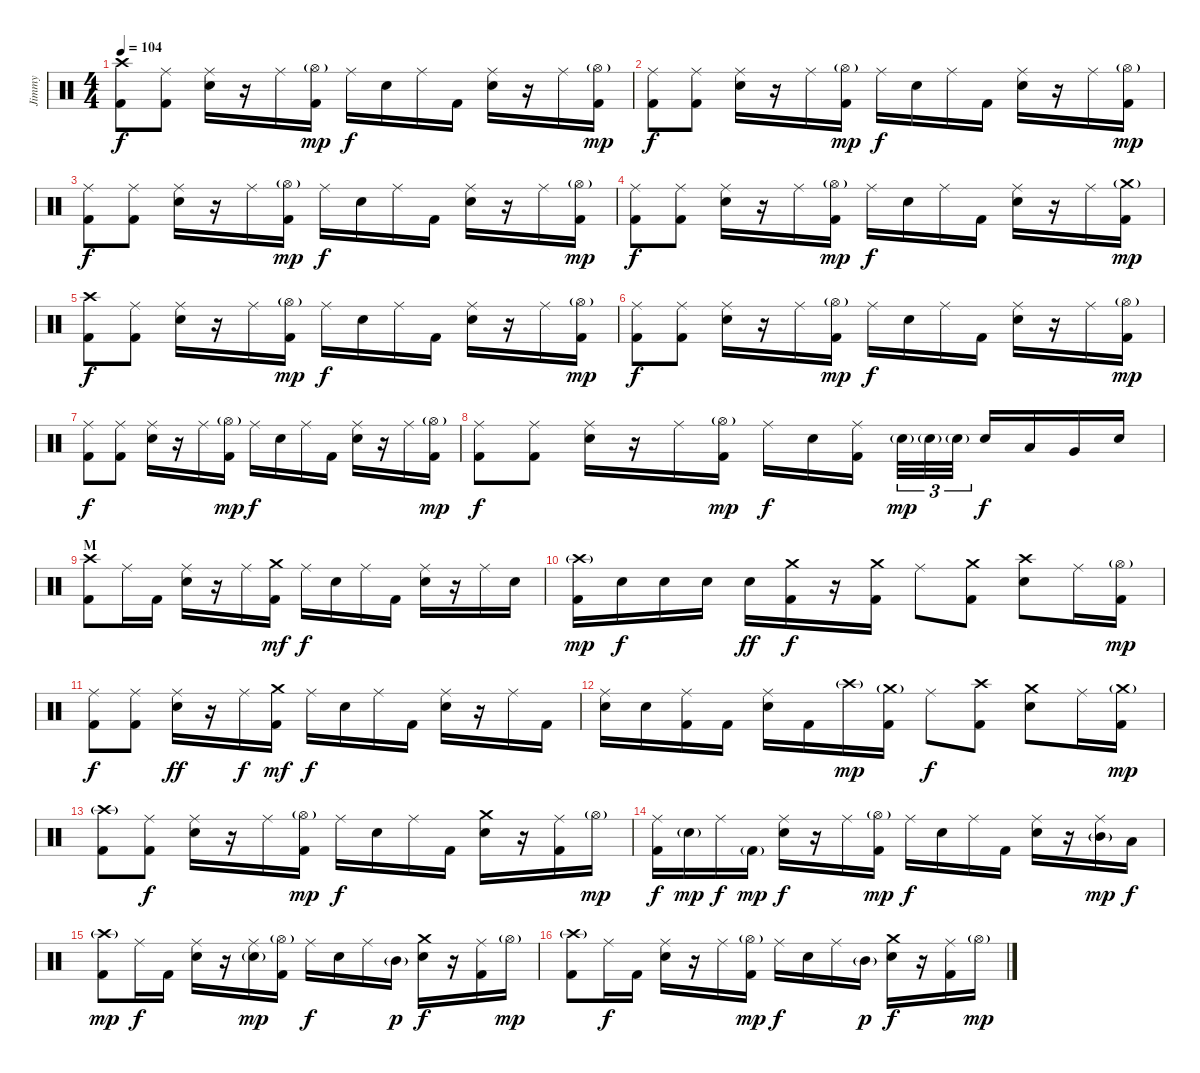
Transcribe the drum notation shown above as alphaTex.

\track ("Jimmy" "Jimmy") {instrument percussion}
\staff {score}
\articulation defaults
\ts (4 4)
\tempo 104
\clef neutral
\ks c
("Crash high (hit)" "Kick (hit) 2").8{dy f} ("Ride (middle)" "Kick (hit) 2").8 ("Ride (middle)" "Electric Snare (hit)").16 r.16 "Ride (middle)".16 ("Hi-Hat (open)"{g} "Kick (hit) 2").16{dy mp} "Ride (middle)".16{dy f} "Electric Snare (hit)".16 "Ride (middle)".16 "Kick (hit) 2".16 ("Ride (middle)" "Electric Snare (hit)").16 r.16 "Ride (middle)".16 ("Hi-Hat (open)"{g} "Kick (hit) 2").16{dy mp} |
("Ride (middle)" "Kick (hit) 2").8{dy f} ("Ride (middle)" "Kick (hit) 2").8 ("Ride (middle)" "Electric Snare (hit)").16 r.16 "Ride (middle)".16 ("Hi-Hat (open)"{g} "Kick (hit) 2").16{dy mp} "Ride (middle)".16{dy f} "Electric Snare (hit)".16 "Ride (middle)".16 "Kick (hit) 2".16 ("Ride (middle)" "Electric Snare (hit)").16 r.16 "Ride (middle)".16 ("Hi-Hat (open)"{g} "Kick (hit) 2").16{dy mp} |
("Ride (middle)" "Kick (hit) 2").8{dy f} ("Ride (middle)" "Kick (hit) 2").8 ("Ride (middle)" "Electric Snare (hit)").16 r.16 "Ride (middle)".16 ("Hi-Hat (open)"{g} "Kick (hit) 2").16{dy mp} "Ride (middle)".16{dy f} "Electric Snare (hit)".16 "Ride (middle)".16 "Kick (hit) 2".16 ("Ride (middle)" "Electric Snare (hit)").16 r.16 "Ride (middle)".16 ("Hi-Hat (open)"{g} "Kick (hit) 2").16{dy mp} |
("Ride (middle)" "Kick (hit) 2").8{dy f} ("Ride (middle)" "Kick (hit) 2").8 ("Ride (middle)" "Electric Snare (hit)").16 r.16 "Ride (middle)".16 ("Hi-Hat (open)"{g} "Kick (hit) 2").16{dy mp} "Ride (middle)".16{dy f} "Electric Snare (hit)".16 "Ride (middle)".16 "Kick (hit) 2".16 ("Ride (middle)" "Electric Snare (hit)").16 r.16 "Ride (middle)".16 ("Crash medium (hit)"{g} "Kick (hit) 2").16{dy mp} |
("Crash high (hit)" "Kick (hit) 2").8{dy f} ("Ride (middle)" "Kick (hit) 2").8 ("Ride (middle)" "Electric Snare (hit)").16 r.16 "Ride (middle)".16 ("Hi-Hat (open)"{g} "Kick (hit) 2").16{dy mp} "Ride (middle)".16{dy f} "Electric Snare (hit)".16 "Ride (middle)".16 "Kick (hit) 2".16 ("Ride (middle)" "Electric Snare (hit)").16 r.16 "Ride (middle)".16 ("Hi-Hat (open)"{g} "Kick (hit) 2").16{dy mp} |
("Ride (middle)" "Kick (hit) 2").8{dy f} ("Ride (middle)" "Kick (hit) 2").8 ("Ride (middle)" "Electric Snare (hit)").16 r.16 "Ride (middle)".16 ("Hi-Hat (open)"{g} "Kick (hit) 2").16{dy mp} "Ride (middle)".16{dy f} "Electric Snare (hit)".16 "Ride (middle)".16 "Kick (hit) 2".16 ("Ride (middle)" "Electric Snare (hit)").16 r.16 "Ride (middle)".16 ("Hi-Hat (open)"{g} "Kick (hit) 2").16{dy mp} |
("Ride (middle)" "Kick (hit) 2").8{dy f} ("Ride (middle)" "Kick (hit) 2").8 ("Ride (middle)" "Electric Snare (hit)").16 r.16 "Ride (middle)".16 ("Hi-Hat (open)"{g} "Kick (hit) 2").16{dy mp} "Ride (middle)".16{dy f} "Electric Snare (hit)".16 "Ride (middle)".16 "Kick (hit) 2".16 ("Ride (middle)" "Electric Snare (hit)").16 r.16 "Ride (middle)".16 ("Hi-Hat (open)"{g} "Kick (hit) 2").16{dy mp} |
("Ride (middle)" "Kick (hit) 2").8{dy f} ("Ride (middle)" "Kick (hit) 2").8 ("Ride (middle)" "Electric Snare (hit)").16 r.16 "Ride (middle)".16 ("Hi-Hat (open)"{g} "Kick (hit) 2").16{dy mp} "Ride (middle)".16{dy f} "Electric Snare (hit)".16 ("Ride (middle)" "Kick (hit) 2").16 "Electric Snare (hit)"{g}.32{tu (3 2) dy mp} "Electric Snare (hit)"{g}.32{tu (3 2)} "Electric Snare (hit)"{g}.32{tu (3 2)} "Electric Snare (hit)".16{dy f} "Low Tom (hit)".16 "Very Low Tom (hit)".16 "Electric Snare (hit)".16 |
\section ("" "M")
("Crash high (hit)" "Kick (hit) 2").8 "Ride (middle)".16 "Kick (hit) 2".16 ("Ride (middle)" "Electric Snare (hit)").16 r.16 "Ride (middle)".16 ("Crash medium (hit)" "Kick (hit) 2").16{dy mf} "Ride (middle)".16{dy f} "Electric Snare (hit)".16 "Ride (middle)".16 "Kick (hit) 2".16 ("Ride (middle)" "Electric Snare (hit)").16 r.16 "Ride (middle)".16 "Electric Snare (hit)".16 |
("Crash high (hit)"{g} "Kick (hit) 2").16{dy mp} "Electric Snare (hit)".16{dy f} "Electric Snare (hit)".16 "Electric Snare (hit)".16 "Electric Snare (hit)".16{dy ff} ("Crash medium (hit)" "Kick (hit) 2").16{dy f} r.16 ("Crash medium (hit)" "Kick (hit) 2").16 "Ride (middle)".8 ("Crash medium (hit)" "Kick (hit) 2").8 ("Crash high (hit)" "Electric Snare (hit)").8 "Ride (middle)".16 ("Hi-Hat (open)"{g} "Kick (hit) 2").16{dy mp} |
("Ride (middle)" "Kick (hit) 2").8{dy f} ("Ride (middle)" "Kick (hit) 2").8 ("Ride (middle)" "Electric Snare (hit)").16{dy ff} r.16 "Ride (middle)".16{dy f} ("Crash medium (hit)" "Kick (hit) 2").16{dy mf} "Ride (middle)".16{dy f} "Electric Snare (hit)".16 "Ride (middle)".16 "Kick (hit) 2".16 ("Ride (middle)" "Electric Snare (hit)").16 r.16 "Ride (middle)".16 "Kick (hit) 2".16 |
("Ride (middle)" "Electric Snare (hit)").16 "Electric Snare (hit)".16 ("Ride (middle)" "Kick (hit) 2").16 "Kick (hit) 2".16 ("Ride (middle)" "Electric Snare (hit)").16 "Kick (hit) 2".16 "Crash high (hit)"{g}.16{dy mp} ("Crash medium (hit)"{g} "Kick (hit) 2").16 "Ride (middle)".8{dy f} ("Crash high (hit)" "Kick (hit) 2").8 ("Crash medium (hit)" "Electric Snare (hit)").8 "Ride (middle)".16 ("Crash medium (hit)"{g} "Kick (hit) 2").16{dy mp} |
("Crash high (hit)"{g} "Kick (hit) 2").8 ("Ride (middle)" "Kick (hit) 2").8{dy f} ("Ride (middle)" "Electric Snare (hit)").16 r.16 "Ride (middle)".16 ("Hi-Hat (open)"{g} "Kick (hit) 2").16{dy mp} "Ride (middle)".16{dy f} "Electric Snare (hit)".16 "Ride (middle)".16 "Kick (hit) 2".16 ("Crash medium (hit)" "Electric Snare (hit)").16 r.16 ("Ride (middle)" "Kick (hit) 2").16 "Hi-Hat (open)"{g}.16{dy mp} |
("Ride (middle)" "Kick (hit) 2").16{dy f} "Electric Snare (hit)"{g}.16{dy mp} "Ride (middle)".16{dy f} "Kick (hit) 2"{g}.16{dy mp} ("Ride (middle)" "Electric Snare (hit)").16{dy f} r.16 "Ride (middle)".16 ("Hi-Hat (open)"{g} "Kick (hit) 2").16{dy mp} "Ride (middle)".16{dy f} "Electric Snare (hit)".16 "Ride (middle)".16 "Kick (hit) 2".16 ("Ride (middle)" "Electric Snare (hit)").16 r.16 ("Ride (middle)" "Mid Tom (hit)"{g}).16{dy mp} "Low Tom (hit)".16{dy f} |
("Crash high (hit)"{g} "Kick (hit) 2").8{dy mp} "Ride (middle)".16{dy f} "Kick (hit) 2".16 ("Ride (middle)" "Electric Snare (hit)").16 r.16 ("Ride (middle)" "Electric Snare (hit)"{g}).16{dy mp} ("Hi-Hat (open)"{g} "Kick (hit) 2").16 "Ride (middle)".16{dy f} "Electric Snare (hit)".16 "Ride (middle)".16 "Mid Tom (hit)"{g}.16{dy p} ("Crash medium (hit)" "Electric Snare (hit)").16{dy f} r.16 ("Ride (middle)" "Kick (hit) 2").16 "Hi-Hat (open)"{g}.16{dy mp} |
("Crash high (hit)"{g} "Kick (hit) 2").8 "Ride (middle)".16{dy f} "Kick (hit) 2".16 ("Ride (middle)" "Electric Snare (hit)").16 r.16 "Ride (middle)".16 ("Hi-Hat (open)"{g} "Kick (hit) 2").16{dy mp} "Ride (middle)".16{dy f} "Electric Snare (hit)".16 "Ride (middle)".16 "Mid Tom (hit)"{g}.16{dy p} ("Crash medium (hit)" "Electric Snare (hit)").16{dy f} r.16 ("Ride (middle)" "Kick (hit) 2").16 "Hi-Hat (open)"{g}.16{dy mp}
